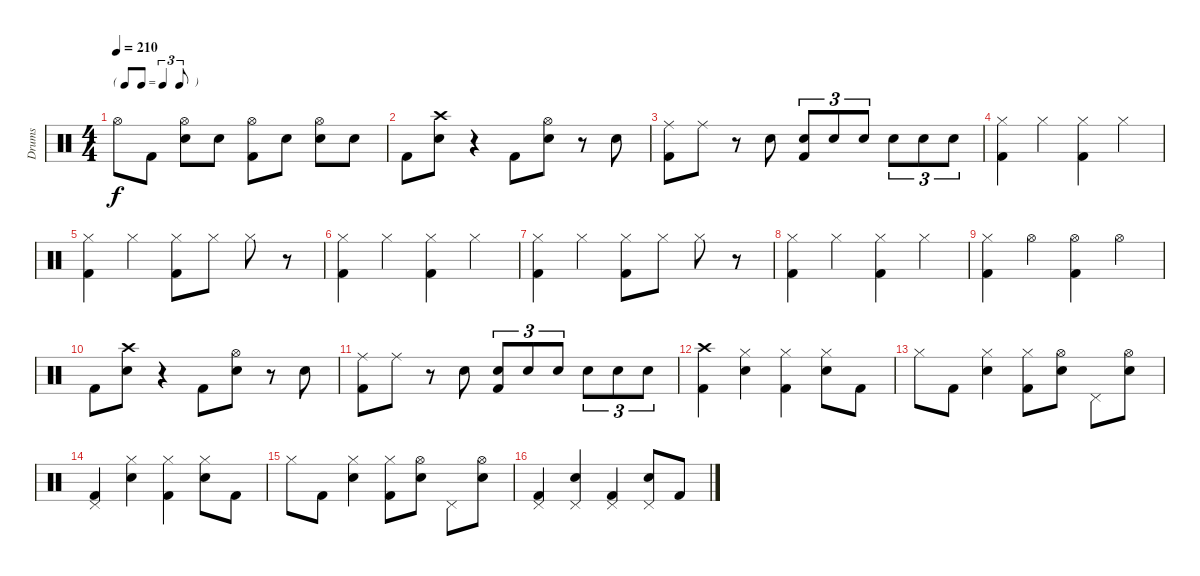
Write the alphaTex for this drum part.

\track ("Drums" "Drums") {instrument percussion}
\staff {score}
\articulation defaults
\ts (4 4)
\tf triplet8th
\tempo 210
\clef neutral
\ks c "Hi-Hat (open)".8{dy f} "Kick (hit) 2".8
("Hi-Hat (open)" "Snare (hit) 2").8 "Snare (hit) 2".8 ("Hi-Hat (open)" "Kick (hit) 2").8 "Snare (hit) 2".8 ("Hi-Hat (open)" "Snare (hit) 2").8 "Snare (hit) 2".8 |
"Kick (hit) 2".8 ("Crash high (hit)" "Snare (hit) 2").8 r.4 "Kick (hit) 2".8 ("Hi-Hat (open)" "Snare (hit) 2").8 r.8 "Snare (hit) 2".8 |
("Ride (middle)" "Kick (hit) 2").8 "Ride (middle)".8 r.8 "Snare (hit) 2".8 ("Snare (hit) 2" "Kick (hit) 2").8{tu (3 2)} "Snare (hit) 2".8{tu (3 2)} "Snare (hit) 2".8{tu (3 2)} "Snare (hit) 2".8{tu (3 2)} "Snare (hit) 2".8{tu (3 2)} "Snare (hit) 2".8{tu (3 2)} |
("Hi-Hat (closed)" "Kick (hit) 2").4 "Hi-Hat (closed)".4 ("Hi-Hat (closed)" "Kick (hit) 2").4 "Hi-Hat (closed)".4 |
("Hi-Hat (closed)" "Kick (hit) 2").4 "Hi-Hat (closed)".4 ("Hi-Hat (closed)" "Kick (hit) 2").8 "Hi-Hat (closed)".8 "Hi-Hat (closed)".8 r.8 |
("Hi-Hat (closed)" "Kick (hit) 2").4 "Hi-Hat (closed)".4 ("Hi-Hat (closed)" "Kick (hit) 2").4 "Hi-Hat (closed)".4 |
("Hi-Hat (closed)" "Kick (hit) 2").4 "Hi-Hat (closed)".4 ("Hi-Hat (closed)" "Kick (hit) 2").8 "Hi-Hat (closed)".8 "Hi-Hat (closed)".8 r.8 |
("Hi-Hat (closed)" "Kick (hit) 2").4 "Hi-Hat (closed)".4 ("Hi-Hat (closed)" "Kick (hit) 2").4 "Hi-Hat (closed)".4 |
("Hi-Hat (closed)" "Kick (hit) 2").4 "Hi-Hat (open)".4 ("Hi-Hat (open)" "Kick (hit) 2").4 "Hi-Hat (open)".4 |
"Kick (hit) 2".8 ("Crash high (hit)" "Snare (hit) 2").8 r.4 "Kick (hit) 2".8 ("Hi-Hat (open)" "Snare (hit) 2").8 r.8 "Snare (hit) 2".8 |
("Ride (middle)" "Kick (hit) 2").8 "Ride (middle)".8 r.8 "Snare (hit) 2".8 ("Snare (hit) 2" "Kick (hit) 2").8{tu (3 2)} "Snare (hit) 2".8{tu (3 2)} "Snare (hit) 2".8{tu (3 2)} "Snare (hit) 2".8{tu (3 2)} "Snare (hit) 2".8{tu (3 2)} "Snare (hit) 2".8{tu (3 2)} |
("Crash high (hit)" "Kick (hit) 2").4 ("Hi-Hat (closed)" "Snare (hit) 2").4 ("Hi-Hat (closed)" "Kick (hit) 2").4 ("Hi-Hat (closed)" "Snare (hit) 2").8 "Kick (hit) 2".8 |
"Hi-Hat (closed)".8 "Kick (hit) 2".8 ("Hi-Hat (closed)" "Snare (hit) 2").4 ("Hi-Hat (closed)" "Kick (hit) 2").8 ("Hi-Hat (open)" "Snare (hit) 2").8 "Pedal Hi-Hat (hit)".8 ("Hi-Hat (open)" "Snare (hit) 2").8 |
("Pedal Hi-Hat (hit)" "Kick (hit) 2").4 ("Hi-Hat (closed)" "Snare (hit) 2").4 ("Hi-Hat (closed)" "Kick (hit) 2").4 ("Hi-Hat (closed)" "Snare (hit) 2").8 "Kick (hit) 2".8 |
"Hi-Hat (closed)".8 "Kick (hit) 2".8 ("Hi-Hat (closed)" "Snare (hit) 2").4 ("Hi-Hat (closed)" "Kick (hit) 2").8 ("Hi-Hat (open)" "Snare (hit) 2").8 "Pedal Hi-Hat (hit)".8 ("Hi-Hat (open)" "Snare (hit) 2").8 |
("Pedal Hi-Hat (hit)" "Kick (hit) 2").4 ("Pedal Hi-Hat (hit)" "Snare (hit) 2").4 ("Pedal Hi-Hat (hit)" "Kick (hit) 2").4 ("Pedal Hi-Hat (hit)" "Snare (hit) 2").8 "Kick (hit) 2".8
